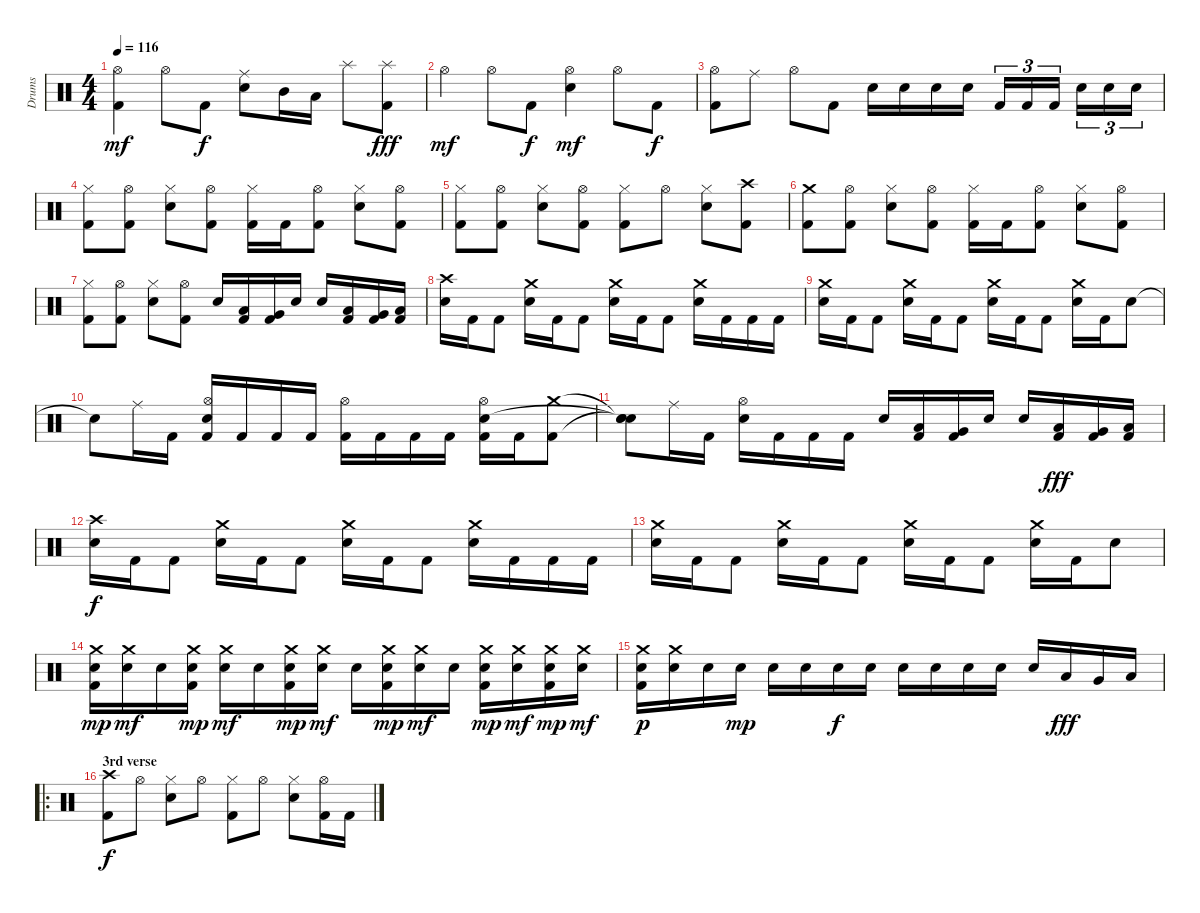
\track ("Drums" "Drums") {instrument percussion}
\staff {score}
\articulation defaults
\ts (4 4)
\tempo 116
\clef neutral
\ks c
("Kick (hit) 2" "Hi-Hat (open)").4{dy mf} "Hi-Hat (open)".8 "Kick (hit) 2".8{dy f} ("Ride (middle)" "Electric Snare (hit)").8 "Mid Tom (hit)".16 "Low Tom (hit)".16 "Splash (hit)".8 ("Kick (hit) 2" "Splash (hit)").8{dy fff} |
"Hi-Hat (open)".4{dy mf} "Hi-Hat (open)".8 "Kick (hit) 2".8{dy f} ("Hi-Hat (open)" "Electric Snare (hit)").4{dy mf} "Hi-Hat (open)".8 "Kick (hit) 2".8{dy f} |
("Kick (hit) 2" "Hi-Hat (open)").8 "Ride (middle)".8 "Hi-Hat (open)".8 "Kick (hit) 2".8 "Electric Snare (hit)".16 "Electric Snare (hit)".16 "Electric Snare (hit)".16 "Electric Snare (hit)".16 "Kick (hit) 2".16{tu (3 2)} "Kick (hit) 2".16{tu (3 2)} "Kick (hit) 2".16{tu (3 2)} "Electric Snare (hit)".16{tu (3 2)} "Electric Snare (hit)".16{tu (3 2)} "Electric Snare (hit)".16{tu (3 2)} |
("Kick (hit) 2" "Hi-Hat (closed)").8 ("Kick (hit) 2" "Hi-Hat (open)").8 ("Hi-Hat (closed)" "Electric Snare (hit)").8 ("Kick (hit) 2" "Hi-Hat (open)").8 ("Kick (hit) 2" "Hi-Hat (closed)").16 "Kick (hit) 2".16 ("Kick (hit) 2" "Hi-Hat (open)").8 ("Hi-Hat (closed)" "Electric Snare (hit)").8 ("Kick (hit) 2" "Hi-Hat (open)").8 |
("Kick (hit) 2" "Hi-Hat (closed)").8 ("Kick (hit) 2" "Hi-Hat (open)").8 ("Hi-Hat (closed)" "Electric Snare (hit)").8 ("Kick (hit) 2" "Hi-Hat (open)").8 ("Kick (hit) 2" "Hi-Hat (closed)").8 "Hi-Hat (open)".8 ("Hi-Hat (closed)" "Electric Snare (hit)").8 ("Kick (hit) 2" "Crash high (hit)").8 |
("Kick (hit) 2" "Crash medium (hit)").8 ("Kick (hit) 2" "Hi-Hat (open)").8 ("Hi-Hat (closed)" "Electric Snare (hit)").8 ("Kick (hit) 2" "Hi-Hat (open)").8 ("Kick (hit) 2" "Hi-Hat (closed)").16 "Kick (hit) 2".16 ("Kick (hit) 2" "Hi-Hat (open)").8 ("Hi-Hat (closed)" "Electric Snare (hit)").8 ("Kick (hit) 2" "Hi-Hat (open)").8 |
("Kick (hit) 2" "Hi-Hat (closed)").8 ("Kick (hit) 2" "Hi-Hat (open)").8 ("Hi-Hat (closed)" "Electric Snare (hit)").8 ("Kick (hit) 2" "Hi-Hat (open)").8 "Electric Snare (hit)".16 ("Kick (hit) 2" "Low Tom (hit)").16 ("Kick (hit) 2" "Very Low Tom (hit)").16 "Electric Snare (hit)".16 "Electric Snare (hit)".16 ("Kick (hit) 2" "Low Tom (hit)").16 ("Kick (hit) 2" "Very Low Tom (hit)").16 ("Kick (hit) 2" "Low Floor Tom (hit)").16 |
("Crash high (hit)" "Electric Snare (hit)").16 "Kick (hit) 2".16 "Kick (hit) 2".8 ("Crash medium (hit)" "Electric Snare (hit)").16 "Kick (hit) 2".16 "Kick (hit) 2".8 ("Crash medium (hit)" "Electric Snare (hit)").16 "Kick (hit) 2".16 "Kick (hit) 2".8 ("Crash medium (hit)" "Electric Snare (hit)").16 "Kick (hit) 2".16 "Kick (hit) 2".16 "Kick (hit) 2".16 |
("Crash medium (hit)" "Electric Snare (hit)").16 "Kick (hit) 2".16 "Kick (hit) 2".8 ("Crash medium (hit)" "Electric Snare (hit)").16 "Kick (hit) 2".16 "Kick (hit) 2".8 ("Crash medium (hit)" "Electric Snare (hit)").16 "Kick (hit) 2".16 "Kick (hit) 2".8 ("Crash medium (hit)" "Electric Snare (hit)").16 "Kick (hit) 2".16 "Electric Snare (hit)".8 |
"Snare (hit)"{t}.8 "Ride (middle)".16 "Kick (hit) 2".16 ("Kick (hit) 2" "Hi-Hat (open)" "Electric Snare (hit)").16 "Kick (hit) 2".16 "Kick (hit) 2".16 "Kick (hit) 2".16 ("Kick (hit) 2" "Hi-Hat (open)").16 "Kick (hit) 2".16 "Kick (hit) 2".16 "Kick (hit) 2".16 ("Kick (hit) 2" "Hi-Hat (open)" "Electric Snare (hit)").16 "Kick (hit) 2".16 ("Kick (hit) 2" "Crash medium (hit)").8 |
("Snare (hit)"{t} "Snare (hit)"{t} "Snare (hit)"{t}).8 "Ride (middle)".16 "Kick (hit) 2".16 ("Hi-Hat (open)" "Electric Snare (hit)").16 "Kick (hit) 2".16 "Kick (hit) 2".16 "Kick (hit) 2".16 "Electric Snare (hit)".16 ("Kick (hit) 2" "Low Tom (hit)").16 ("Kick (hit) 2" "Very Low Tom (hit)").16 "Electric Snare (hit)".16 "Electric Snare (hit)".16 ("Kick (hit) 2" "Low Tom (hit)").16{dy fff} ("Kick (hit) 2" "Very Low Tom (hit)").16 ("Kick (hit) 2" "Low Floor Tom (hit)").16 |
("Crash high (hit)" "Electric Snare (hit)").16{dy f} "Kick (hit) 2".16 "Kick (hit) 2".8 ("Crash medium (hit)" "Electric Snare (hit)").16 "Kick (hit) 2".16 "Kick (hit) 2".8 ("Crash medium (hit)" "Electric Snare (hit)").16 "Kick (hit) 2".16 "Kick (hit) 2".8 ("Crash medium (hit)" "Electric Snare (hit)").16 "Kick (hit) 2".16 "Kick (hit) 2".16 "Kick (hit) 2".16 |
("Crash medium (hit)" "Electric Snare (hit)").16 "Kick (hit) 2".16 "Kick (hit) 2".8 ("Crash medium (hit)" "Electric Snare (hit)").16 "Kick (hit) 2".16 "Kick (hit) 2".8 ("Crash medium (hit)" "Electric Snare (hit)").16 "Kick (hit) 2".16 "Kick (hit) 2".8 ("Crash medium (hit)" "Electric Snare (hit)").16 "Kick (hit) 2".16 "Electric Snare (hit)".8 |
("Kick (hit) 2" "Crash medium (hit)" "Electric Snare (hit)").16{dy mp} ("Crash medium (hit)" "Electric Snare (hit)").16{dy mf} "Electric Snare (hit)".16 ("Kick (hit) 2" "Crash medium (hit)" "Electric Snare (hit)").16{dy mp} ("Crash medium (hit)" "Electric Snare (hit)").16{dy mf} "Electric Snare (hit)".16 ("Kick (hit) 2" "Crash medium (hit)" "Electric Snare (hit)").16{dy mp} ("Crash medium (hit)" "Electric Snare (hit)").16{dy mf} "Electric Snare (hit)".16 ("Kick (hit) 2" "Crash medium (hit)" "Electric Snare (hit)").16{dy mp} ("Crash medium (hit)" "Electric Snare (hit)").16{dy mf} "Electric Snare (hit)".16 ("Kick (hit) 2" "Crash medium (hit)" "Electric Snare (hit)").16{dy mp} ("Crash medium (hit)" "Electric Snare (hit)").16{dy mf} ("Kick (hit) 2" "Crash medium (hit)" "Electric Snare (hit)").16{dy mp} ("Crash medium (hit)" "Electric Snare (hit)").16{dy mf} |
("Kick (hit) 2" "Crash medium (hit)" "Electric Snare (hit)").16{dy p} ("Crash medium (hit)" "Electric Snare (hit)").16 "Electric Snare (hit)".16 "Electric Snare (hit)".16{dy mp} "Electric Snare (hit)".16 "Electric Snare (hit)".16 "Electric Snare (hit)".16{dy f} "Electric Snare (hit)".16 "Electric Snare (hit)".16 "Electric Snare (hit)".16 "Electric Snare (hit)".16 "Electric Snare (hit)".16 "Electric Snare (hit)".16 "Low Tom (hit)".16{dy fff} "Very Low Tom (hit)".16 "Low Floor Tom (hit)".16 |
\ro
\section ("" "3rd verse")
("Kick (hit) 2" "Crash high (hit)").8{dy f} "Hi-Hat (open)".8 ("Hi-Hat (closed)" "Electric Snare (hit)").8 "Hi-Hat (open)".8 ("Kick (hit) 2" "Hi-Hat (closed)").8 "Hi-Hat (open)".8 ("Hi-Hat (closed)" "Electric Snare (hit)").8 ("Kick (hit) 2" "Hi-Hat (open)").16 "Kick (hit) 2".16
